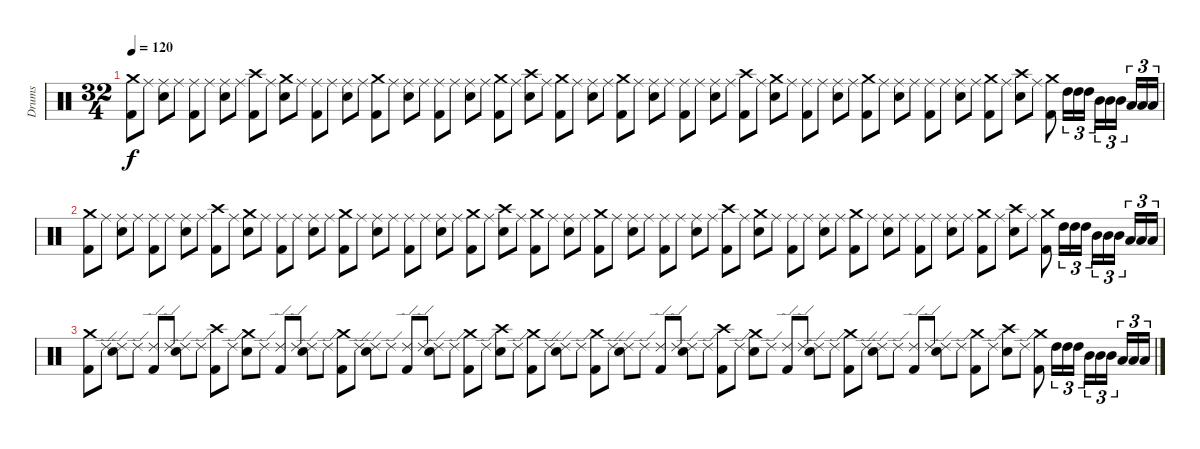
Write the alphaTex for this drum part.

\track ("Drums" "Drums") {instrument percussion}
\staff {score}
\articulation defaults
\ts (32 4)
\tempo 120
\clef neutral
\ks c
("Crash medium (hit)" "Kick (hit) 2").8{dy f} "Ride (middle)".8 ("Ride (middle)" "Snare (hit) 2").8 "Ride (middle)".8 ("Ride (middle)" "Kick (hit) 2").8 "Ride (middle)".8 ("Ride (middle)" "Snare (hit) 2").8 "Ride (middle)".8 ("Crash high (hit)" "Kick (hit) 2").8 "Ride (middle)".8 ("Crash medium (hit)" "Snare (hit) 2").8 "Ride (middle)".8 ("Ride (middle)" "Kick (hit) 2").8 "Ride (middle)".8 ("Ride (middle)" "Snare (hit) 2").8 "Ride (middle)".8 ("Crash medium (hit)" "Kick (hit) 2").8 "Ride (middle)".8 ("Ride (middle)" "Snare (hit) 2").8 "Ride (middle)".8 ("Ride (middle)" "Kick (hit) 2").8 "Ride (middle)".8 ("Ride (middle)" "Snare (hit) 2").8 "Ride (middle)".8 ("Crash medium (hit)" "Kick (hit) 2").8 "Ride (middle)".8 ("Crash high (hit)" "Snare (hit) 2").8 "Ride (middle)".8 ("Crash medium (hit)" "Kick (hit) 2").8 "Ride (middle)".8 ("Ride (middle)" "Snare (hit) 2").8 "Ride (middle)".8 ("Crash medium (hit)" "Kick (hit) 2").8 "Ride (middle)".8 ("Ride (middle)" "Snare (hit) 2").8 "Ride (middle)".8 ("Ride (middle)" "Kick (hit) 2").8 "Ride (middle)".8 ("Ride (middle)" "Snare (hit) 2").8 "Ride (middle)".8 ("Crash high (hit)" "Kick (hit) 2").8 "Ride (middle)".8 ("Crash medium (hit)" "Snare (hit) 2").8 "Ride (middle)".8 ("Ride (middle)" "Kick (hit) 2").8 "Ride (middle)".8 ("Ride (middle)" "Snare (hit) 2").8 "Ride (middle)".8 ("Crash medium (hit)" "Kick (hit) 2").8 "Ride (middle)".8 ("Ride (middle)" "Snare (hit) 2").8 "Ride (middle)".8 ("Ride (middle)" "Kick (hit) 2").8 "Ride (middle)".8 ("Ride (middle)" "Snare (hit) 2").8 "Ride (middle)".8 ("Crash medium (hit)" "Kick (hit) 2").8 "Ride (middle)".8 ("Crash high (hit)" "Snare (hit) 2").8 "Ride (middle)".8 ("Crash medium (hit)" "Kick (hit) 2").8 "High Tom (hit)".16{tu (3 2)} "High Tom (hit)".16{tu (3 2)} "High Tom (hit)".16{tu (3 2)} "Mid Tom (hit)".16{tu (3 2)} "Mid Tom (hit)".16{tu (3 2)} "Mid Tom (hit)".16{tu (3 2)} "Low Tom (hit)".16{tu (3 2)} "Low Tom (hit)".16{tu (3 2)} "Low Tom (hit)".16{tu (3 2)} |
("Crash medium (hit)" "Kick (hit) 2").8 "Ride (middle)".8 ("Ride (middle)" "Snare (hit) 2").8 "Ride (middle)".8 ("Ride (middle)" "Kick (hit) 2").8 "Ride (middle)".8 ("Ride (middle)" "Snare (hit) 2").8 "Ride (middle)".8 ("Crash high (hit)" "Kick (hit) 2").8 "Ride (middle)".8 ("Crash medium (hit)" "Snare (hit) 2").8 "Ride (middle)".8 ("Ride (middle)" "Kick (hit) 2").8 "Ride (middle)".8 ("Ride (middle)" "Snare (hit) 2").8 "Ride (middle)".8 ("Crash medium (hit)" "Kick (hit) 2").8 "Ride (middle)".8 ("Ride (middle)" "Snare (hit) 2").8 "Ride (middle)".8 ("Ride (middle)" "Kick (hit) 2").8 "Ride (middle)".8 ("Ride (middle)" "Snare (hit) 2").8 "Ride (middle)".8 ("Crash medium (hit)" "Kick (hit) 2").8 "Ride (middle)".8 ("Crash high (hit)" "Snare (hit) 2").8 "Ride (middle)".8 ("Crash medium (hit)" "Kick (hit) 2").8 "Ride (middle)".8 ("Ride (middle)" "Snare (hit) 2").8 "Ride (middle)".8 ("Crash medium (hit)" "Kick (hit) 2").8 "Ride (middle)".8 ("Ride (middle)" "Snare (hit) 2").8 "Ride (middle)".8 ("Ride (middle)" "Kick (hit) 2").8 "Ride (middle)".8 ("Ride (middle)" "Snare (hit) 2").8 "Ride (middle)".8 ("Crash high (hit)" "Kick (hit) 2").8 "Ride (middle)".8 ("Crash medium (hit)" "Snare (hit) 2").8 "Ride (middle)".8 ("Ride (middle)" "Kick (hit) 2").8 "Ride (middle)".8 ("Ride (middle)" "Snare (hit) 2").8 "Ride (middle)".8 ("Crash medium (hit)" "Kick (hit) 2").8 "Ride (middle)".8 ("Ride (middle)" "Snare (hit) 2").8 "Ride (middle)".8 ("Ride (middle)" "Kick (hit) 2").8 "Ride (middle)".8 ("Ride (middle)" "Snare (hit) 2").8 "Ride (middle)".8 ("Crash medium (hit)" "Kick (hit) 2").8 "Ride (middle)".8 ("Crash high (hit)" "Snare (hit) 2").8 "Ride (middle)".8 ("Crash medium (hit)" "Kick (hit) 2").8 "High Tom (hit)".16{tu (3 2)} "High Tom (hit)".16{tu (3 2)} "High Tom (hit)".16{tu (3 2)} "Mid Tom (hit)".16{tu (3 2)} "Mid Tom (hit)".16{tu (3 2)} "Mid Tom (hit)".16{tu (3 2)} "Low Tom (hit)".16{tu (3 2)} "Low Tom (hit)".16{tu (3 2)} "Low Tom (hit)".16{tu (3 2)} |
("Crash medium (hit)" "Kick (hit) 2").8{volume 6} "Ride (edge) 2".8 ("Ride (edge) 2" "Snare (hit) 2").8 "Ride (edge) 2".8 ("Ride (edge) 2" "Kick (hit) 2").8 "Ride (edge) 2".8 ("Ride (edge) 2" "Snare (hit) 2").8 "Ride (edge) 2".8 ("Crash high (hit)" "Kick (hit) 2").8 "Ride (edge) 2".8 ("Crash medium (hit)" "Snare (hit) 2").8 "Ride (edge) 2".8 ("Ride (edge) 2" "Kick (hit) 2").8 "Ride (edge) 2".8 ("Ride (edge) 2" "Snare (hit) 2").8 "Ride (edge) 2".8 ("Crash medium (hit)" "Kick (hit) 2").8 "Ride (edge) 2".8 ("Ride (edge) 2" "Snare (hit) 2").8 "Ride (edge) 2".8 ("Ride (edge) 2" "Kick (hit) 2").8 "Ride (edge) 2".8 ("Ride (edge) 2" "Snare (hit) 2").8 "Ride (edge) 2".8 ("Crash medium (hit)" "Kick (hit) 2").8 "Ride (edge) 2".8 ("Crash high (hit)" "Snare (hit) 2").8 "Ride (edge) 2".8 ("Crash medium (hit)" "Kick (hit) 2").8 "Ride (edge) 2".8 ("Ride (edge) 2" "Snare (hit) 2").8 "Ride (edge) 2".8 ("Crash medium (hit)" "Kick (hit) 2").8{volume 0} "Ride (edge) 2".8 ("Ride (edge) 2" "Snare (hit) 2").8 "Ride (edge) 2".8 ("Ride (edge) 2" "Kick (hit) 2").8 "Ride (edge) 2".8 ("Ride (edge) 2" "Snare (hit) 2").8 "Ride (edge) 2".8 ("Crash high (hit)" "Kick (hit) 2").8 "Ride (edge) 2".8 ("Crash medium (hit)" "Snare (hit) 2").8 "Ride (edge) 2".8 ("Ride (edge) 2" "Kick (hit) 2").8 "Ride (edge) 2".8 ("Ride (edge) 2" "Snare (hit) 2").8 "Ride (edge) 2".8 ("Crash medium (hit)" "Kick (hit) 2").8 "Ride (edge) 2".8 ("Ride (edge) 2" "Snare (hit) 2").8 "Ride (edge) 2".8 ("Ride (edge) 2" "Kick (hit) 2").8 "Ride (edge) 2".8 ("Ride (edge) 2" "Snare (hit) 2").8 "Ride (edge) 2".8 ("Crash medium (hit)" "Kick (hit) 2").8 "Ride (edge) 2".8 ("Crash high (hit)" "Snare (hit) 2").8 "Ride (edge) 2".8 ("Crash medium (hit)" "Kick (hit) 2").8 "High Tom (hit)".16{tu (3 2)} "High Tom (hit)".16{tu (3 2)} "High Tom (hit)".16{tu (3 2)} "Mid Tom (hit)".16{tu (3 2)} "Mid Tom (hit)".16{tu (3 2)} "Mid Tom (hit)".16{tu (3 2)} "Low Tom (hit)".16{tu (3 2)} "Low Tom (hit)".16{tu (3 2)} "Low Tom (hit)".16{tu (3 2)}
